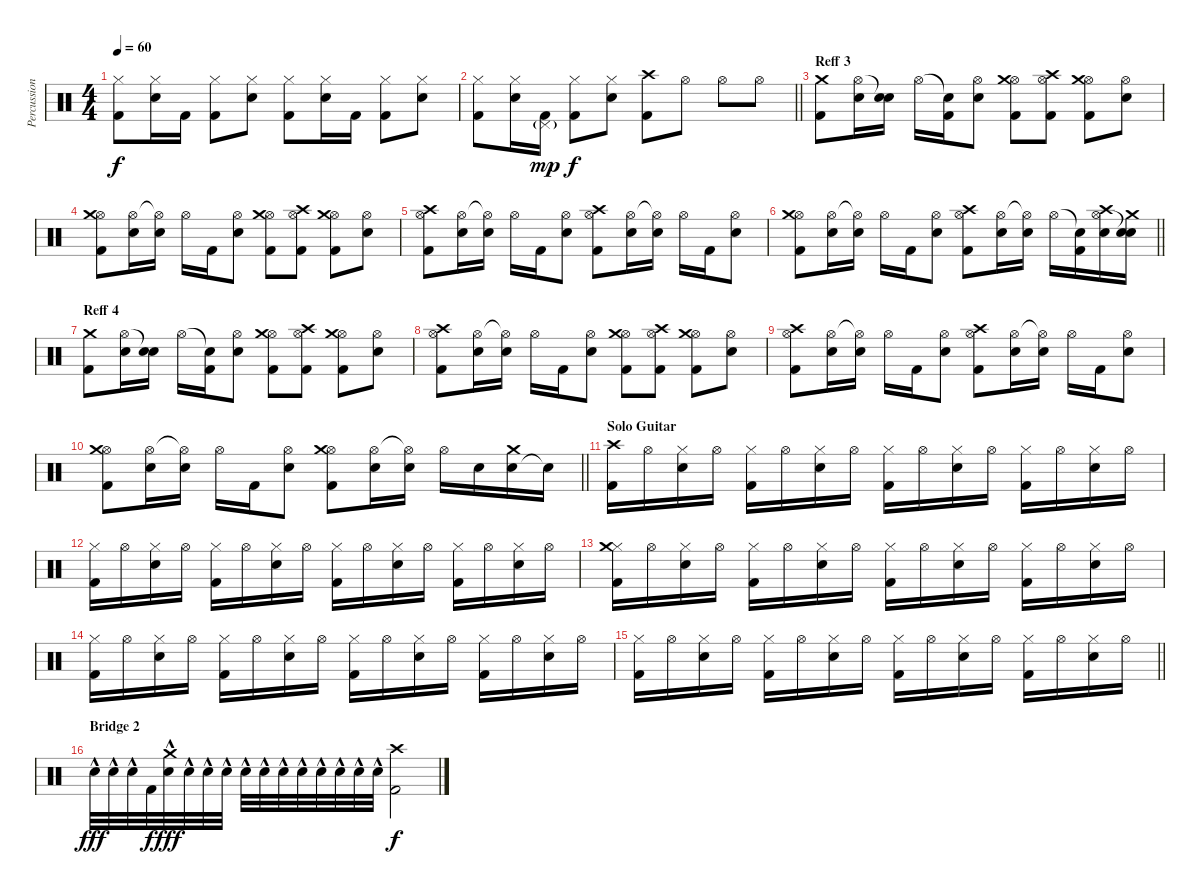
\track ("Percussion 1" "Percussion") {instrument percussion}
\staff {score}
\articulation defaults
\ts (4 4)
\tempo 60
\clef neutral
\ks c
("Hi-Hat (closed)" "Kick (hit) 2").8{dy f} ("Hi-Hat (closed)" "Electric Snare (hit)").16 "Kick (hit) 2".16 ("Hi-Hat (closed)" "Kick (hit) 2").8 ("Hi-Hat (closed)" "Electric Snare (hit)").8 ("Hi-Hat (closed)" "Kick (hit) 2").8 ("Hi-Hat (closed)" "Electric Snare (hit)").16 "Kick (hit) 2".16 ("Hi-Hat (closed)" "Kick (hit) 2").8 ("Hi-Hat (closed)" "Electric Snare (hit)").8 |
\barLineRight lightlight
("Hi-Hat (closed)" "Kick (hit) 2").8 ("Hi-Hat (closed)" "Electric Snare (hit)").16 ("Pedal Hi-Hat (hit)"{g} "Kick (hit) 2").16{dy mp} ("Hi-Hat (closed)" "Kick (hit) 2").8{dy f} ("Hi-Hat (closed)" "Electric Snare (hit)").8 ("Crash high (hit)" "Kick (hit) 2").8 "Hi-Hat (open)".8 "Hi-Hat (open)".8 "Hi-Hat (open)".8 |
\section ("" "Reff 3")
("Crash medium (hit)" "Kick (hit) 2").8 ("Hi-Hat (open)" "Electric Snare (hit)").16 ("Snare (hit)"{t} "Electric Snare (hit)").16 "Hi-Hat (open)".16 ("Snare (hit)"{t} "Kick (hit) 2").16 ("Hi-Hat (open)" "Electric Snare (hit)").8 ("Hi-Hat (open)" "Crash medium (hit)" "Kick (hit) 2").8 ("Hi-Hat (open)" "Crash high (hit)" "Kick (hit) 2").8 ("Hi-Hat (open)" "Crash medium (hit)" "Kick (hit) 2").8 ("Hi-Hat (open)" "Electric Snare (hit)").8 |
("Hi-Hat (open)" "Crash medium (hit)" "Kick (hit) 2").8 ("Hi-Hat (open)" "Electric Snare (hit)").16 ("Hi-Hat (open)"{t} "Electric Snare (hit)").16 "Hi-Hat (open)".16 "Kick (hit) 2".16 ("Hi-Hat (open)" "Electric Snare (hit)").8 ("Hi-Hat (open)" "Crash medium (hit)" "Kick (hit) 2").8 ("Hi-Hat (open)" "Crash high (hit)" "Kick (hit) 2").8 ("Hi-Hat (open)" "Crash medium (hit)" "Kick (hit) 2").8 ("Hi-Hat (open)" "Electric Snare (hit)").8 |
("Hi-Hat (open)" "Crash high (hit)" "Kick (hit) 2").8 ("Hi-Hat (open)" "Electric Snare (hit)").16 ("Hi-Hat (open)"{t} "Electric Snare (hit)").16 "Hi-Hat (open)".16 "Kick (hit) 2".16 ("Hi-Hat (open)" "Electric Snare (hit)").8 ("Hi-Hat (open)" "Crash high (hit)" "Kick (hit) 2").8 ("Hi-Hat (open)" "Electric Snare (hit)").16 ("Hi-Hat (open)"{t} "Electric Snare (hit)").16 "Hi-Hat (open)".16 "Kick (hit) 2".16 ("Hi-Hat (open)" "Electric Snare (hit)").8 |
\barLineRight lightlight
("Hi-Hat (open)" "Crash medium (hit)" "Kick (hit) 2").8 ("Hi-Hat (open)" "Electric Snare (hit)").16 ("Hi-Hat (open)"{t} "Electric Snare (hit)").16 "Hi-Hat (open)".16 "Kick (hit) 2".16 ("Hi-Hat (open)" "Electric Snare (hit)").8 ("Hi-Hat (open)" "Crash high (hit)" "Kick (hit) 2").8 ("Hi-Hat (open)" "Electric Snare (hit)").16 ("Hi-Hat (open)"{t} "Electric Snare (hit)").16 "Hi-Hat (open)".16 ("Snare (hit)"{t} "Kick (hit) 2").16 ("Hi-Hat (open)" "Electric Snare (hit)" "Crash high (hit)").16 ("Snare (hit)"{t} "Electric Snare (hit)" "Crash medium (hit)").16 |
\section ("" "Reff 4")
("Crash medium (hit)" "Kick (hit) 2").8 ("Hi-Hat (open)" "Electric Snare (hit)").16 ("Snare (hit)"{t} "Electric Snare (hit)").16 "Hi-Hat (open)".16 ("Snare (hit)"{t} "Kick (hit) 2").16 ("Hi-Hat (open)" "Electric Snare (hit)").8 ("Hi-Hat (open)" "Crash medium (hit)" "Kick (hit) 2").8 ("Hi-Hat (open)" "Crash high (hit)" "Kick (hit) 2").8 ("Hi-Hat (open)" "Crash medium (hit)" "Kick (hit) 2").8 ("Hi-Hat (open)" "Electric Snare (hit)").8 |
("Hi-Hat (open)" "Crash high (hit)" "Kick (hit) 2").8 ("Hi-Hat (open)" "Electric Snare (hit)").16 ("Hi-Hat (open)"{t} "Electric Snare (hit)").16 "Hi-Hat (open)".16 "Kick (hit) 2".16 ("Hi-Hat (open)" "Electric Snare (hit)").8 ("Hi-Hat (open)" "Crash medium (hit)" "Kick (hit) 2").8 ("Hi-Hat (open)" "Crash high (hit)" "Kick (hit) 2").8 ("Hi-Hat (open)" "Crash medium (hit)" "Kick (hit) 2").8 ("Hi-Hat (open)" "Electric Snare (hit)").8 |
("Hi-Hat (open)" "Crash high (hit)" "Kick (hit) 2").8 ("Hi-Hat (open)" "Electric Snare (hit)").16 ("Hi-Hat (open)"{t} "Electric Snare (hit)").16 "Hi-Hat (open)".16 "Kick (hit) 2".16 ("Hi-Hat (open)" "Electric Snare (hit)").8 ("Hi-Hat (open)" "Crash high (hit)" "Kick (hit) 2").8 ("Hi-Hat (open)" "Electric Snare (hit)").16 ("Hi-Hat (open)"{t} "Electric Snare (hit)").16 "Hi-Hat (open)".16 "Kick (hit) 2".16 ("Hi-Hat (open)" "Electric Snare (hit)").8 |
\barLineRight lightlight
("Hi-Hat (open)" "Crash medium (hit)" "Kick (hit) 2").8 ("Hi-Hat (open)" "Electric Snare (hit)").16 ("Hi-Hat (open)"{t} "Electric Snare (hit)").16 "Hi-Hat (open)".16 "Kick (hit) 2".16 ("Hi-Hat (open)" "Electric Snare (hit)").8 ("Hi-Hat (open)" "Crash medium (hit)" "Kick (hit) 2").8 ("Hi-Hat (open)" "Electric Snare (hit)").16 ("Hi-Hat (open)"{t} "Electric Snare (hit)").16 "Hi-Hat (open)".16 "Electric Snare (hit)".16 ("Electric Snare (hit)" "Crash medium (hit)").16 "Snare (hit)"{t}.16 |
\section ("" "Solo Guitar")
("Crash high (hit)" "Kick (hit) 2").16 "Hi-Hat (open)".16 ("Hi-Hat (closed)" "Electric Snare (hit)").16 "Hi-Hat (open)".16 ("Hi-Hat (closed)" "Kick (hit) 2").16 "Hi-Hat (open)".16 ("Hi-Hat (closed)" "Electric Snare (hit)").16 "Hi-Hat (open)".16 ("Hi-Hat (closed)" "Kick (hit) 2").16 "Hi-Hat (open)".16 ("Hi-Hat (closed)" "Electric Snare (hit)").16 "Hi-Hat (open)".16 ("Hi-Hat (closed)" "Kick (hit) 2").16 "Hi-Hat (open)".16 ("Hi-Hat (closed)" "Electric Snare (hit)").16 "Hi-Hat (open)".16 |
("Hi-Hat (closed)" "Kick (hit) 2").16 "Hi-Hat (open)".16 ("Hi-Hat (closed)" "Electric Snare (hit)").16 "Hi-Hat (open)".16 ("Hi-Hat (closed)" "Kick (hit) 2").16 "Hi-Hat (open)".16 ("Hi-Hat (closed)" "Electric Snare (hit)").16 "Hi-Hat (open)".16 ("Hi-Hat (closed)" "Kick (hit) 2").16 "Hi-Hat (open)".16 ("Hi-Hat (closed)" "Electric Snare (hit)").16 "Hi-Hat (open)".16 ("Hi-Hat (closed)" "Kick (hit) 2").16 "Hi-Hat (open)".16 ("Hi-Hat (closed)" "Electric Snare (hit)").16 "Hi-Hat (open)".16 |
("Hi-Hat (closed)" "Crash medium (hit)" "Kick (hit) 2").16 "Hi-Hat (open)".16 ("Hi-Hat (closed)" "Electric Snare (hit)").16 "Hi-Hat (open)".16 ("Hi-Hat (closed)" "Kick (hit) 2").16 "Hi-Hat (open)".16 ("Hi-Hat (closed)" "Electric Snare (hit)").16 "Hi-Hat (open)".16 ("Hi-Hat (closed)" "Kick (hit) 2").16 "Hi-Hat (open)".16 ("Hi-Hat (closed)" "Electric Snare (hit)").16 "Hi-Hat (open)".16 ("Hi-Hat (closed)" "Kick (hit) 2").16 "Hi-Hat (open)".16 ("Hi-Hat (closed)" "Electric Snare (hit)").16 "Hi-Hat (open)".16 |
("Hi-Hat (closed)" "Kick (hit) 2").16 "Hi-Hat (open)".16 ("Hi-Hat (closed)" "Electric Snare (hit)").16 "Hi-Hat (open)".16 ("Hi-Hat (closed)" "Kick (hit) 2").16 "Hi-Hat (open)".16 ("Hi-Hat (closed)" "Electric Snare (hit)").16 "Hi-Hat (open)".16 ("Hi-Hat (closed)" "Kick (hit) 2").16 "Hi-Hat (open)".16 ("Hi-Hat (closed)" "Electric Snare (hit)").16 "Hi-Hat (open)".16 ("Hi-Hat (closed)" "Kick (hit) 2").16 "Hi-Hat (open)".16 ("Hi-Hat (closed)" "Electric Snare (hit)").16 "Hi-Hat (open)".16 |
\barLineRight lightlight
("Hi-Hat (closed)" "Kick (hit) 2").16 "Hi-Hat (open)".16 ("Hi-Hat (closed)" "Electric Snare (hit)").16 "Hi-Hat (open)".16 ("Hi-Hat (closed)" "Kick (hit) 2").16 "Hi-Hat (open)".16 ("Hi-Hat (closed)" "Electric Snare (hit)").16 "Hi-Hat (open)".16 ("Hi-Hat (closed)" "Kick (hit) 2").16 "Hi-Hat (open)".16 ("Hi-Hat (closed)" "Electric Snare (hit)").16 "Hi-Hat (open)".16 ("Hi-Hat (closed)" "Kick (hit) 2").16 "Hi-Hat (open)".16 ("Hi-Hat (closed)" "Electric Snare (hit)").16 "Hi-Hat (open)".16 |
\section ("" "Bridge 2")
"Electric Snare (hit)"{hac}.32{dy fff} "Electric Snare (hit)"{hac}.32 "Electric Snare (hit)"{hac}.32 "Kick (hit) 2".32{dy f} ("Electric Snare (hit)"{hac} "Crash medium (hit)").32{dy fff} "Electric Snare (hit)"{hac}.32 "Electric Snare (hit)"{hac}.32 "Electric Snare (hit)"{hac}.32 "Electric Snare (hit)"{hac}.32 "Electric Snare (hit)"{hac}.32 "Electric Snare (hit)"{hac}.32 "Electric Snare (hit)"{hac}.32 "Electric Snare (hit)"{hac}.32 "Electric Snare (hit)"{hac}.32 "Electric Snare (hit)"{hac}.32 "Electric Snare (hit)"{hac}.32 ("Crash high (hit)" "Kick (hit) 2").2{dy f}
